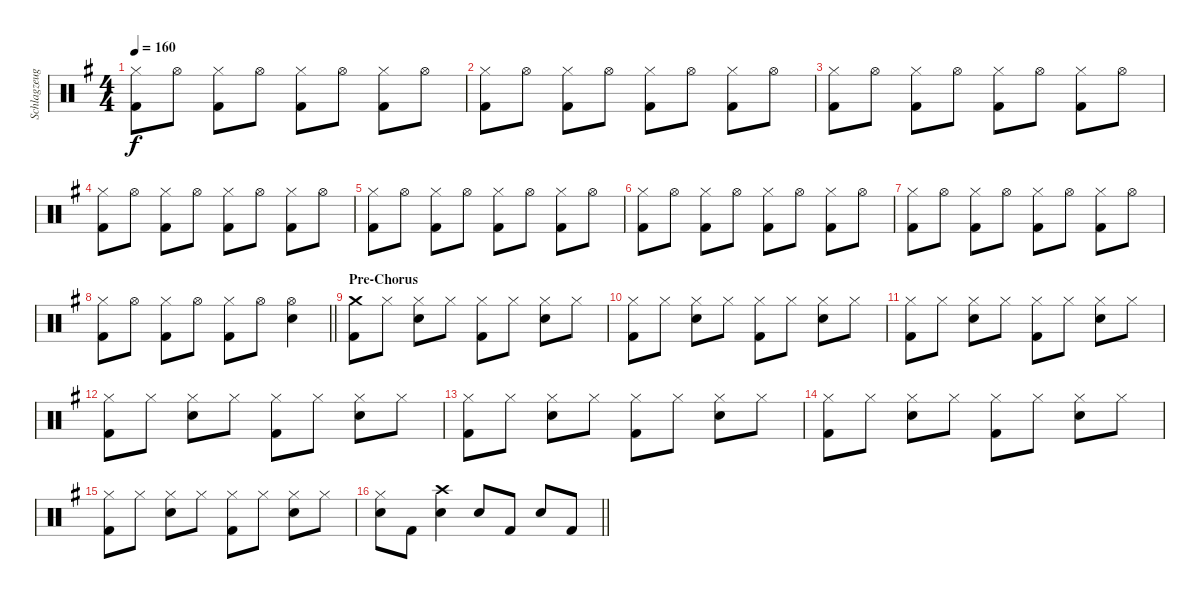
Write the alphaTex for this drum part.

\track ("Schlagzeug" "Schlagzeug") {instrument percussion}
\staff {score}
\articulation defaults
\ts (4 4)
\tempo 160
\clef neutral
\ks g
("Hi-Hat (closed)" "Kick (hit) 2").8{dy f} "Hi-Hat (open)".8 ("Hi-Hat (closed)" "Kick (hit) 2").8 "Hi-Hat (open)".8 ("Hi-Hat (closed)" "Kick (hit) 2").8 "Hi-Hat (open)".8 ("Hi-Hat (closed)" "Kick (hit) 2").8 "Hi-Hat (open)".8 |
("Hi-Hat (closed)" "Kick (hit) 2").8 "Hi-Hat (open)".8 ("Hi-Hat (closed)" "Kick (hit) 2").8 "Hi-Hat (open)".8 ("Hi-Hat (closed)" "Kick (hit) 2").8 "Hi-Hat (open)".8 ("Hi-Hat (closed)" "Kick (hit) 2").8 "Hi-Hat (open)".8 |
("Hi-Hat (closed)" "Kick (hit) 2").8 "Hi-Hat (open)".8 ("Hi-Hat (closed)" "Kick (hit) 2").8 "Hi-Hat (open)".8 ("Hi-Hat (closed)" "Kick (hit) 2").8 "Hi-Hat (open)".8 ("Hi-Hat (closed)" "Kick (hit) 2").8 "Hi-Hat (open)".8 |
("Hi-Hat (closed)" "Kick (hit) 2").8 "Hi-Hat (open)".8 ("Hi-Hat (closed)" "Kick (hit) 2").8 "Hi-Hat (open)".8 ("Hi-Hat (closed)" "Kick (hit) 2").8 "Hi-Hat (open)".8 ("Hi-Hat (closed)" "Kick (hit) 2").8 "Hi-Hat (open)".8 |
("Hi-Hat (closed)" "Kick (hit) 2").8 "Hi-Hat (open)".8 ("Hi-Hat (closed)" "Kick (hit) 2").8 "Hi-Hat (open)".8 ("Hi-Hat (closed)" "Kick (hit) 2").8 "Hi-Hat (open)".8 ("Hi-Hat (closed)" "Kick (hit) 2").8 "Hi-Hat (open)".8 |
("Hi-Hat (closed)" "Kick (hit) 2").8 "Hi-Hat (open)".8 ("Hi-Hat (closed)" "Kick (hit) 2").8 "Hi-Hat (open)".8 ("Hi-Hat (closed)" "Kick (hit) 2").8 "Hi-Hat (open)".8 ("Hi-Hat (closed)" "Kick (hit) 2").8 "Hi-Hat (open)".8 |
("Hi-Hat (closed)" "Kick (hit) 2").8 "Hi-Hat (open)".8 ("Hi-Hat (closed)" "Kick (hit) 2").8 "Hi-Hat (open)".8 ("Hi-Hat (closed)" "Kick (hit) 2").8 "Hi-Hat (open)".8 ("Hi-Hat (closed)" "Kick (hit) 2").8 "Hi-Hat (open)".8 |
\barLineRight lightlight
("Hi-Hat (closed)" "Kick (hit) 2").8 "Hi-Hat (open)".8 ("Hi-Hat (closed)" "Kick (hit) 2").8 "Hi-Hat (open)".8 ("Hi-Hat (closed)" "Kick (hit) 2").8 "Hi-Hat (open)".8 ("Hi-Hat (open)" "Snare (hit) 2").4 |
\section ("" "Pre-Chorus")
("Crash medium (hit)" "Kick (hit) 2").8 "Hi-Hat (closed)".8 ("Hi-Hat (closed)" "Snare (hit) 2").8 "Hi-Hat (closed)".8 ("Hi-Hat (closed)" "Kick (hit) 2").8 "Hi-Hat (closed)".8 ("Hi-Hat (closed)" "Snare (hit) 2").8 "Hi-Hat (closed)".8 |
("Hi-Hat (closed)" "Kick (hit) 2").8 "Hi-Hat (closed)".8 ("Hi-Hat (closed)" "Snare (hit) 2").8 "Hi-Hat (closed)".8 ("Hi-Hat (closed)" "Kick (hit) 2").8 "Hi-Hat (closed)".8 ("Hi-Hat (closed)" "Snare (hit) 2").8 "Hi-Hat (closed)".8 |
("Hi-Hat (closed)" "Kick (hit) 2").8 "Hi-Hat (closed)".8 ("Hi-Hat (closed)" "Snare (hit) 2").8 "Hi-Hat (closed)".8 ("Hi-Hat (closed)" "Kick (hit) 2").8 "Hi-Hat (closed)".8 ("Hi-Hat (closed)" "Snare (hit) 2").8 "Hi-Hat (closed)".8 |
("Hi-Hat (closed)" "Kick (hit) 2").8 "Hi-Hat (closed)".8 ("Hi-Hat (closed)" "Snare (hit) 2").8 "Hi-Hat (closed)".8 ("Hi-Hat (closed)" "Kick (hit) 2").8 "Hi-Hat (closed)".8 ("Hi-Hat (closed)" "Snare (hit) 2").8 "Hi-Hat (closed)".8 |
("Hi-Hat (closed)" "Kick (hit) 2").8 "Hi-Hat (closed)".8 ("Hi-Hat (closed)" "Snare (hit) 2").8 "Hi-Hat (closed)".8 ("Hi-Hat (closed)" "Kick (hit) 2").8 "Hi-Hat (closed)".8 ("Hi-Hat (closed)" "Snare (hit) 2").8 "Hi-Hat (closed)".8 |
("Hi-Hat (closed)" "Kick (hit) 2").8 "Hi-Hat (closed)".8 ("Hi-Hat (closed)" "Snare (hit) 2").8 "Hi-Hat (closed)".8 ("Hi-Hat (closed)" "Kick (hit) 2").8 "Hi-Hat (closed)".8 ("Hi-Hat (closed)" "Snare (hit) 2").8 "Hi-Hat (closed)".8 |
("Hi-Hat (closed)" "Kick (hit) 2").8 "Hi-Hat (closed)".8 ("Hi-Hat (closed)" "Snare (hit) 2").8 "Hi-Hat (closed)".8 ("Hi-Hat (closed)" "Kick (hit) 2").8 "Hi-Hat (closed)".8 ("Hi-Hat (closed)" "Snare (hit) 2").8 "Hi-Hat (closed)".8 |
\barLineRight lightlight
("Hi-Hat (closed)" "Snare (hit) 2").8 "Kick (hit) 2".8 ("Crash high (hit)" "Snare (hit) 2").4 "Snare (hit) 2".8 "Kick (hit) 2".8 "Snare (hit) 2".8 "Kick (hit) 2".8
